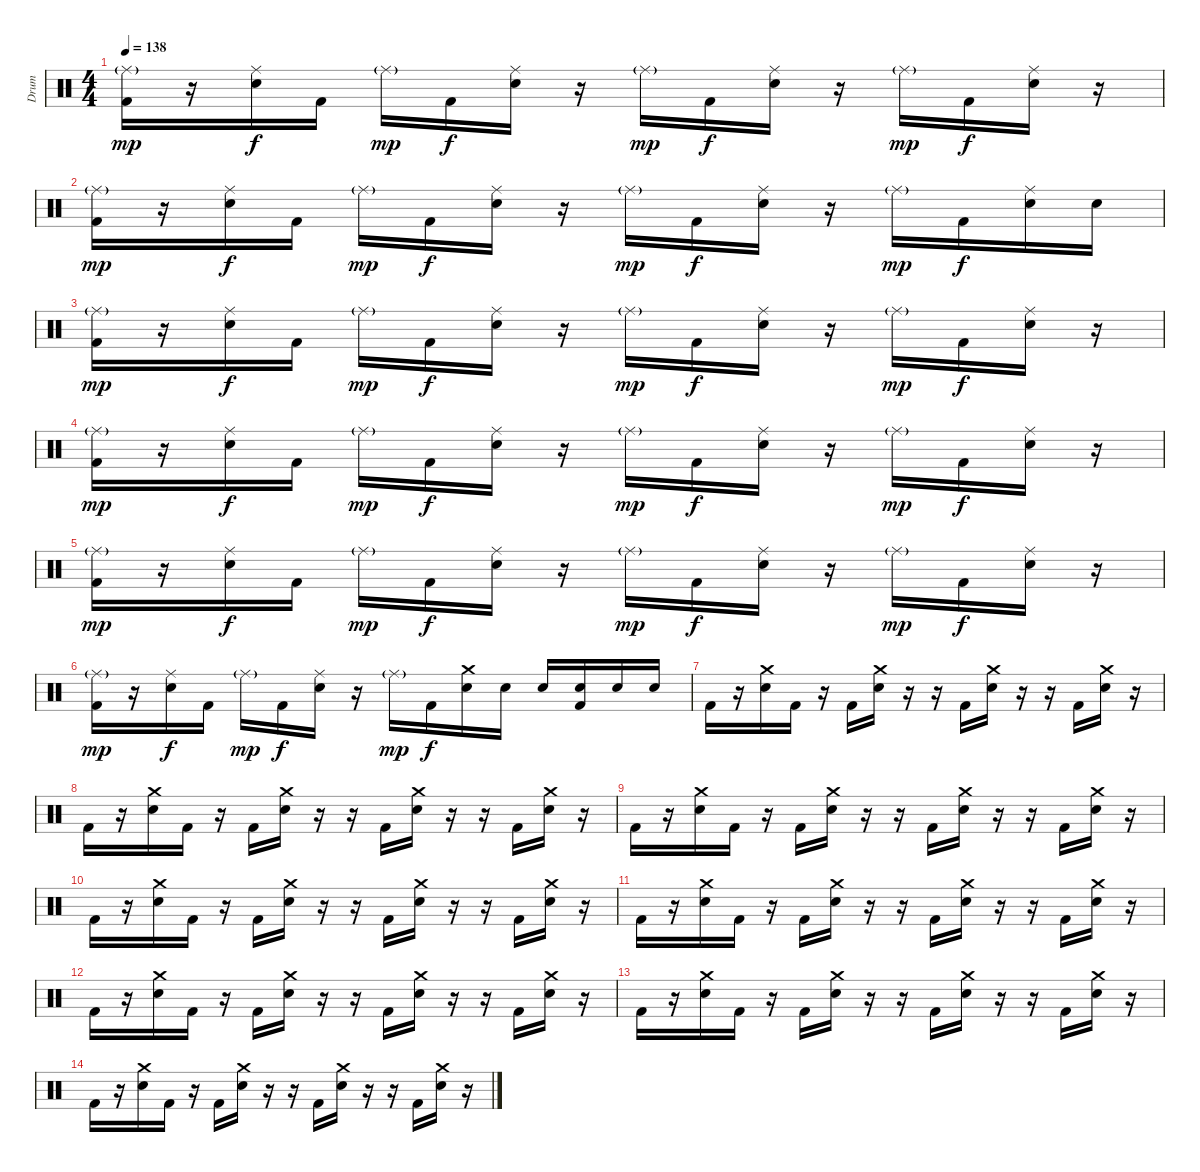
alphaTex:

\track ("Drum" "Drum") {instrument percussion}
\staff {score}
\articulation defaults
\ts (4 4)
\tempo 138
\clef neutral
\ks c
("Ride (middle)"{g} "Kick (hit) 2").16{dy mp} r.16 ("Ride (middle)" "Electric Snare (hit)").16{dy f} "Kick (hit) 2".16 "Ride (middle)"{g}.16{dy mp} "Kick (hit) 2".16{dy f} ("Ride (middle)" "Electric Snare (hit)").16 r.16 "Ride (middle)"{g}.16{dy mp} "Kick (hit) 2".16{dy f} ("Ride (middle)" "Electric Snare (hit)").16 r.16 "Ride (middle)"{g}.16{dy mp} "Kick (hit) 2".16{dy f} ("Ride (middle)" "Electric Snare (hit)").16 r.16 |
("Ride (middle)"{g} "Kick (hit) 2").16{dy mp} r.16 ("Ride (middle)" "Electric Snare (hit)").16{dy f} "Kick (hit) 2".16 "Ride (middle)"{g}.16{dy mp} "Kick (hit) 2".16{dy f} ("Ride (middle)" "Electric Snare (hit)").16 r.16 "Ride (middle)"{g}.16{dy mp} "Kick (hit) 2".16{dy f} ("Ride (middle)" "Electric Snare (hit)").16 r.16 "Ride (middle)"{g}.16{dy mp} "Kick (hit) 2".16{dy f} ("Ride (middle)" "Electric Snare (hit)").16 "Electric Snare (hit)".16 |
("Ride (middle)"{g} "Kick (hit) 2").16{dy mp} r.16 ("Ride (middle)" "Electric Snare (hit)").16{dy f} "Kick (hit) 2".16 "Ride (middle)"{g}.16{dy mp} "Kick (hit) 2".16{dy f} ("Ride (middle)" "Electric Snare (hit)").16 r.16 "Ride (middle)"{g}.16{dy mp} "Kick (hit) 2".16{dy f} ("Ride (middle)" "Electric Snare (hit)").16 r.16 "Ride (middle)"{g}.16{dy mp} "Kick (hit) 2".16{dy f} ("Ride (middle)" "Electric Snare (hit)").16 r.16 |
("Ride (middle)"{g} "Kick (hit) 2").16{dy mp} r.16 ("Ride (middle)" "Electric Snare (hit)").16{dy f} "Kick (hit) 2".16 "Ride (middle)"{g}.16{dy mp} "Kick (hit) 2".16{dy f} ("Ride (middle)" "Electric Snare (hit)").16 r.16 "Ride (middle)"{g}.16{dy mp} "Kick (hit) 2".16{dy f} ("Ride (middle)" "Electric Snare (hit)").16 r.16 "Ride (middle)"{g}.16{dy mp} "Kick (hit) 2".16{dy f} ("Ride (middle)" "Electric Snare (hit)").16 r.16 |
("Ride (middle)"{g} "Kick (hit) 2").16{dy mp} r.16 ("Ride (middle)" "Electric Snare (hit)").16{dy f} "Kick (hit) 2".16 "Ride (middle)"{g}.16{dy mp} "Kick (hit) 2".16{dy f} ("Ride (middle)" "Electric Snare (hit)").16 r.16 "Ride (middle)"{g}.16{dy mp} "Kick (hit) 2".16{dy f} ("Ride (middle)" "Electric Snare (hit)").16 r.16 "Ride (middle)"{g}.16{dy mp} "Kick (hit) 2".16{dy f} ("Ride (middle)" "Electric Snare (hit)").16 r.16 |
("Ride (middle)"{g} "Kick (hit) 2").16{dy mp} r.16 ("Ride (middle)" "Electric Snare (hit)").16{dy f} "Kick (hit) 2".16 "Ride (middle)"{g}.16{dy mp} "Kick (hit) 2".16{dy f} ("Ride (middle)" "Electric Snare (hit)").16 r.16 "Ride (middle)"{g}.16{dy mp} "Kick (hit) 2".16{dy f} ("Crash medium (hit)" "Electric Snare (hit)").16 "Electric Snare (hit)".16 "Electric Snare (hit)".16 ("Electric Snare (hit)" "Kick (hit) 2").16 "Electric Snare (hit)".16 "Electric Snare (hit)".16 |
"Kick (hit) 2".16 r.16 ("Crash medium (hit)" "Electric Snare (hit)").16 "Kick (hit) 2".16 r.16 "Kick (hit) 2".16 ("Crash medium (hit)" "Electric Snare (hit)").16 r.16 r.16 "Kick (hit) 2".16 ("Crash medium (hit)" "Electric Snare (hit)").16 r.16 r.16 "Kick (hit) 2".16 ("Crash medium (hit)" "Electric Snare (hit)").16 r.16 |
"Kick (hit) 2".16 r.16 ("Crash medium (hit)" "Electric Snare (hit)").16 "Kick (hit) 2".16 r.16 "Kick (hit) 2".16 ("Crash medium (hit)" "Electric Snare (hit)").16 r.16 r.16 "Kick (hit) 2".16 ("Crash medium (hit)" "Electric Snare (hit)").16 r.16 r.16 "Kick (hit) 2".16 ("Crash medium (hit)" "Electric Snare (hit)").16 r.16 |
"Kick (hit) 2".16 r.16 ("Crash medium (hit)" "Electric Snare (hit)").16 "Kick (hit) 2".16 r.16 "Kick (hit) 2".16 ("Crash medium (hit)" "Electric Snare (hit)").16 r.16 r.16 "Kick (hit) 2".16 ("Crash medium (hit)" "Electric Snare (hit)").16 r.16 r.16 "Kick (hit) 2".16 ("Crash medium (hit)" "Electric Snare (hit)").16 r.16 |
"Kick (hit) 2".16 r.16 ("Crash medium (hit)" "Electric Snare (hit)").16 "Kick (hit) 2".16 r.16 "Kick (hit) 2".16 ("Crash medium (hit)" "Electric Snare (hit)").16 r.16 r.16 "Kick (hit) 2".16 ("Crash medium (hit)" "Electric Snare (hit)").16 r.16 r.16 "Kick (hit) 2".16 ("Crash medium (hit)" "Electric Snare (hit)").16 r.16 |
"Kick (hit) 2".16 r.16 ("Crash medium (hit)" "Electric Snare (hit)").16 "Kick (hit) 2".16 r.16 "Kick (hit) 2".16 ("Crash medium (hit)" "Electric Snare (hit)").16 r.16 r.16 "Kick (hit) 2".16 ("Crash medium (hit)" "Electric Snare (hit)").16 r.16 r.16 "Kick (hit) 2".16 ("Crash medium (hit)" "Electric Snare (hit)").16 r.16 |
"Kick (hit) 2".16 r.16 ("Crash medium (hit)" "Electric Snare (hit)").16 "Kick (hit) 2".16 r.16 "Kick (hit) 2".16 ("Crash medium (hit)" "Electric Snare (hit)").16 r.16 r.16 "Kick (hit) 2".16 ("Crash medium (hit)" "Electric Snare (hit)").16 r.16 r.16 "Kick (hit) 2".16 ("Crash medium (hit)" "Electric Snare (hit)").16 r.16 |
"Kick (hit) 2".16 r.16 ("Crash medium (hit)" "Electric Snare (hit)").16 "Kick (hit) 2".16 r.16 "Kick (hit) 2".16 ("Crash medium (hit)" "Electric Snare (hit)").16 r.16 r.16 "Kick (hit) 2".16 ("Crash medium (hit)" "Electric Snare (hit)").16 r.16 r.16 "Kick (hit) 2".16 ("Crash medium (hit)" "Electric Snare (hit)").16 r.16 |
"Kick (hit) 2".16 r.16 ("Crash medium (hit)" "Electric Snare (hit)").16 "Kick (hit) 2".16 r.16 "Kick (hit) 2".16 ("Crash medium (hit)" "Electric Snare (hit)").16 r.16 r.16 "Kick (hit) 2".16 ("Crash medium (hit)" "Electric Snare (hit)").16 r.16 r.16 "Kick (hit) 2".16 ("Crash medium (hit)" "Electric Snare (hit)").16 r.16
